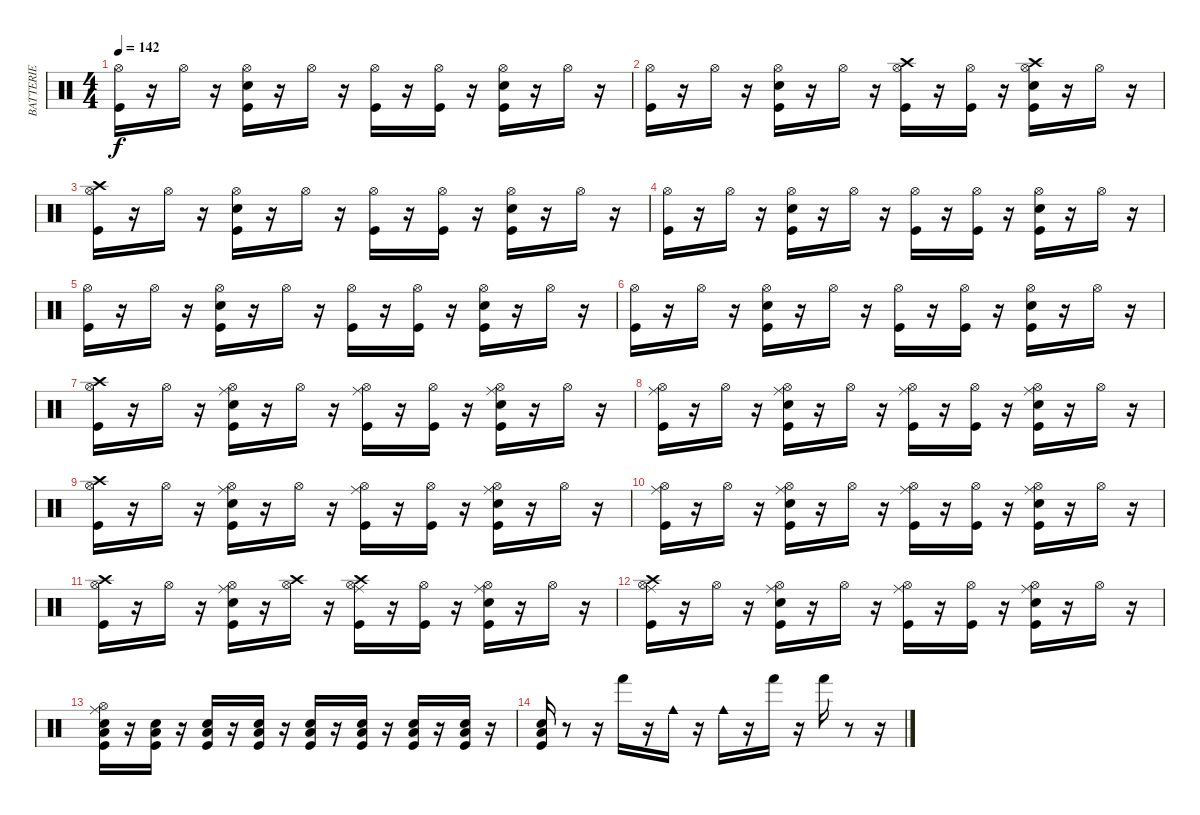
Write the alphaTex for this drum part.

\track ("BATTERIE" "BATTERIE") {instrument percussion}
\staff {score}
\articulation defaults
\ts (4 4)
\tempo 142
\clef neutral
\ks c
("Hi-Hat (open)" "Kick (hit)").16{dy f} r.16 "Hi-Hat (open)".16 r.16 ("Snare (hit) 2" "Kick (hit)" "Hi-Hat (open)").16 r.16 "Hi-Hat (open)".16 r.16 ("Kick (hit)" "Hi-Hat (open)").16 r.16 ("Kick (hit)" "Hi-Hat (open)").16 r.16 ("Kick (hit)" "Snare (hit) 2" "Hi-Hat (open)").16 r.16 "Hi-Hat (open)".16 r.16 |
("Hi-Hat (open)" "Kick (hit)").16 r.16 "Hi-Hat (open)".16 r.16 ("Snare (hit) 2" "Kick (hit)" "Hi-Hat (open)").16 r.16 "Hi-Hat (open)".16 r.16 ("Kick (hit)" "Hi-Hat (open)" "Crash high (hit)").16 r.16 ("Kick (hit)" "Hi-Hat (open)").16 r.16 ("Kick (hit)" "Snare (hit) 2" "Hi-Hat (open)" "Crash high (hit)").16 r.16 "Hi-Hat (open)".16 r.16 |
("Hi-Hat (open)" "Kick (hit)" "Crash high (hit)").16 r.16 "Hi-Hat (open)".16 r.16 ("Snare (hit) 2" "Kick (hit)" "Hi-Hat (open)").16 r.16 "Hi-Hat (open)".16 r.16 ("Kick (hit)" "Hi-Hat (open)").16 r.16 ("Kick (hit)" "Hi-Hat (open)").16 r.16 ("Kick (hit)" "Snare (hit) 2" "Hi-Hat (open)").16 r.16 "Hi-Hat (open)".16 r.16 |
("Hi-Hat (open)" "Kick (hit)").16 r.16 "Hi-Hat (open)".16 r.16 ("Snare (hit) 2" "Kick (hit)" "Hi-Hat (open)").16 r.16 "Hi-Hat (open)".16 r.16 ("Kick (hit)" "Hi-Hat (open)").16 r.16 ("Kick (hit)" "Hi-Hat (open)").16 r.16 ("Kick (hit)" "Snare (hit) 2" "Hi-Hat (open)").16 r.16 "Hi-Hat (open)".16 r.16 |
("Hi-Hat (open)" "Kick (hit)").16 r.16 "Hi-Hat (open)".16 r.16 ("Snare (hit) 2" "Kick (hit)" "Hi-Hat (open)").16 r.16 "Hi-Hat (open)".16 r.16 ("Kick (hit)" "Hi-Hat (open)").16 r.16 ("Kick (hit)" "Hi-Hat (open)").16 r.16 ("Kick (hit)" "Snare (hit) 2" "Hi-Hat (open)").16 r.16 "Hi-Hat (open)".16 r.16 |
("Hi-Hat (open)" "Kick (hit)").16 r.16 "Hi-Hat (open)".16 r.16 ("Snare (hit) 2" "Kick (hit)" "Hi-Hat (open)").16 r.16 "Hi-Hat (open)".16 r.16 ("Kick (hit)" "Hi-Hat (open)").16 r.16 ("Kick (hit)" "Hi-Hat (open)").16 r.16 ("Kick (hit)" "Snare (hit) 2" "Hi-Hat (open)").16 r.16 "Hi-Hat (open)".16 r.16 |
("Hi-Hat (open)" "Kick (hit)" "Crash high (hit)").16 r.16 "Hi-Hat (open)".16 r.16 ("Snare (hit) 2" "Kick (hit)" "Hi-Hat (open)" "Ride (middle)").16 r.16 "Hi-Hat (open)".16 r.16 ("Kick (hit)" "Hi-Hat (open)" "Ride (middle)").16 r.16 ("Kick (hit)" "Hi-Hat (open)").16 r.16 ("Kick (hit)" "Snare (hit) 2" "Hi-Hat (open)" "Ride (middle)").16 r.16 "Hi-Hat (open)".16 r.16 |
("Hi-Hat (open)" "Kick (hit)" "Ride (middle)").16 r.16 "Hi-Hat (open)".16 r.16 ("Snare (hit) 2" "Kick (hit)" "Hi-Hat (open)" "Ride (middle)").16 r.16 "Hi-Hat (open)".16 r.16 ("Kick (hit)" "Hi-Hat (open)" "Ride (middle)").16 r.16 ("Kick (hit)" "Hi-Hat (open)").16 r.16 ("Kick (hit)" "Snare (hit) 2" "Hi-Hat (open)" "Ride (middle)").16 r.16 "Hi-Hat (open)".16 r.16 |
("Crash high (hit)" "Kick (hit)" "Hi-Hat (open)").16 r.16 "Hi-Hat (open)".16 r.16 ("Snare (hit) 2" "Kick (hit)" "Hi-Hat (open)" "Ride (middle)").16 r.16 "Hi-Hat (open)".16 r.16 ("Kick (hit)" "Hi-Hat (open)" "Ride (middle)").16 r.16 ("Kick (hit)" "Hi-Hat (open)").16 r.16 ("Kick (hit)" "Snare (hit) 2" "Hi-Hat (open)" "Ride (middle)").16 r.16 "Hi-Hat (open)".16 r.16 |
("Hi-Hat (open)" "Kick (hit)" "Ride (middle)").16 r.16 "Hi-Hat (open)".16 r.16 ("Snare (hit) 2" "Kick (hit)" "Hi-Hat (open)" "Ride (middle)").16 r.16 "Hi-Hat (open)".16 r.16 ("Kick (hit)" "Hi-Hat (open)" "Ride (middle)").16 r.16 ("Kick (hit)" "Hi-Hat (open)").16 r.16 ("Kick (hit)" "Snare (hit) 2" "Hi-Hat (open)" "Ride (middle)").16 r.16 "Hi-Hat (open)".16 r.16 |
("Crash high (hit)" "Kick (hit)" "Hi-Hat (open)").16 r.16 "Hi-Hat (open)".16 r.16 ("Snare (hit) 2" "Kick (hit)" "Hi-Hat (open)" "Ride (middle)").16 r.16 ("Hi-Hat (open)" "Crash high (hit)").16 r.16 ("Kick (hit)" "Hi-Hat (open)" "Ride (middle)" "Crash high (hit)").16 r.16 ("Kick (hit)" "Hi-Hat (open)").16 r.16 ("Kick (hit)" "Snare (hit) 2" "Hi-Hat (open)" "Ride (middle)").16 r.16 "Hi-Hat (open)".16 r.16 |
("Hi-Hat (open)" "Kick (hit)" "Ride (middle)" "Crash high (hit)").16 r.16 "Hi-Hat (open)".16 r.16 ("Snare (hit) 2" "Kick (hit)" "Hi-Hat (open)" "Ride (middle)").16 r.16 "Hi-Hat (open)".16 r.16 ("Kick (hit)" "Hi-Hat (open)" "Ride (middle)").16 r.16 ("Kick (hit)" "Hi-Hat (open)").16 r.16 ("Kick (hit)" "Snare (hit) 2" "Hi-Hat (open)" "Ride (middle)").16 r.16 "Hi-Hat (open)".16 r.16 |
("Ride (middle)" "Snare (hit) 2" "Kick (hit)" "Hi-Hat (open)" "Low Floor Tom (hit)").16 r.16 ("Kick (hit)" "Snare (hit) 2" "Low Floor Tom (hit)").16 r.16 ("Kick (hit)" "Snare (hit) 2" "Low Floor Tom (hit)").16 r.16 ("Kick (hit)" "Snare (hit) 2" "Low Floor Tom (hit)").16 r.16 ("Kick (hit)" "Snare (hit) 2" "Low Floor Tom (hit)").16 r.16 ("Kick (hit)" "Snare (hit) 2" "Low Floor Tom (hit)").16 r.16 ("Kick (hit)" "Snare (hit) 2" "Low Floor Tom (hit)").16 r.16 ("Kick (hit)" "Snare (hit) 2" "Low Floor Tom (hit)").16 r.16 |
("Kick (hit)" "Snare (hit) 2" "Low Floor Tom (hit)").16 r.8 r.16 "Hand (hit)".16 r.16 "Cowbell medium (hit)".16 r.16 "Cowbell medium (hit)".16 r.16 "Hand (hit)".16 r.16 "Hand (hit)".16 r.8 r.16
